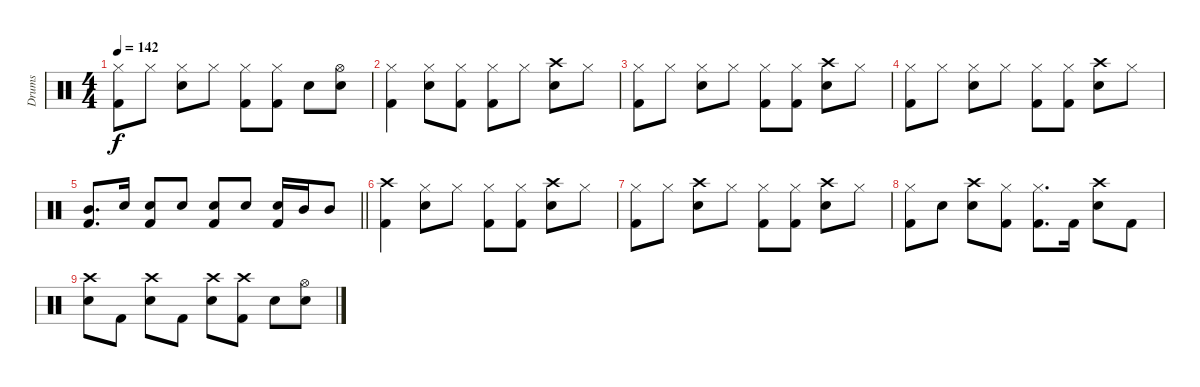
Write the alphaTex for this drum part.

\track ("Drums" "Drums") {instrument percussion}
\staff {score}
\articulation defaults
\ts (4 4)
\tempo 142
\clef neutral
\ks c
("Hi-Hat (closed)" "Kick (hit) 2").8{dy f} "Hi-Hat (closed)".8 ("Hi-Hat (closed)" "Snare (hit) 2").8 "Hi-Hat (closed)".8 ("Hi-Hat (closed)" "Kick (hit) 2").8 ("Hi-Hat (closed)" "Kick (hit) 2").8 "Snare (hit) 2".8 ("Hi-Hat (open)" "Snare (hit) 2").8 |
("Hi-Hat (closed)" "Kick (hit) 2").4 ("Hi-Hat (closed)" "Snare (hit) 2").8 ("Hi-Hat (closed)" "Kick (hit) 2").8 ("Hi-Hat (closed)" "Kick (hit) 2").8 "Hi-Hat (closed)".8 ("Crash high (hit)" "Snare (hit) 2").8 "Hi-Hat (closed)".8 |
("Hi-Hat (closed)" "Kick (hit) 2").8 "Hi-Hat (closed)".8 ("Hi-Hat (closed)" "Snare (hit) 2").8 "Hi-Hat (closed)".8 ("Hi-Hat (closed)" "Kick (hit) 2").8 ("Hi-Hat (closed)" "Kick (hit) 2").8 ("Crash high (hit)" "Snare (hit) 2").8 "Hi-Hat (closed)".8 |
("Hi-Hat (closed)" "Kick (hit) 2").8 "Hi-Hat (closed)".8 ("Hi-Hat (closed)" "Snare (hit) 2").8 "Hi-Hat (closed)".8 ("Hi-Hat (closed)" "Kick (hit) 2").8 ("Hi-Hat (closed)" "Kick (hit) 2").8 ("Crash high (hit)" "Snare (hit) 2").8 "Hi-Hat (closed)".8 |
\barLineRight lightlight
("Mid Tom (hit)" "Kick (hit) 2").8{d} "Snare (hit) 2".16 ("Snare (hit) 2" "Kick (hit) 2").8 "Snare (hit) 2".8 ("Snare (hit) 2" "Kick (hit) 2").8 "Snare (hit) 2".8 ("Snare (hit) 2" "Kick (hit) 2").16 "Mid Tom (hit)".16 "Mid Tom (hit)".8 |
("Crash high (hit)" "Kick (hit) 2").4 ("Hi-Hat (closed)" "Snare (hit) 2").8 "Hi-Hat (closed)".8 ("Hi-Hat (closed)" "Kick (hit) 2").8 ("Hi-Hat (closed)" "Kick (hit) 2").8 ("Crash high (hit)" "Snare (hit) 2").8 "Hi-Hat (closed)".8 |
("Hi-Hat (closed)" "Kick (hit) 2").8 "Hi-Hat (closed)".8 ("Crash high (hit)" "Snare (hit) 2").8 "Hi-Hat (closed)".8 ("Hi-Hat (closed)" "Kick (hit) 2").8 ("Hi-Hat (closed)" "Kick (hit) 2").8 ("Crash high (hit)" "Snare (hit) 2").8 "Hi-Hat (closed)".8 |
("Hi-Hat (closed)" "Kick (hit) 2").8 "Snare (hit) 2".8 ("Crash high (hit)" "Snare (hit) 2").8 ("Hi-Hat (closed)" "Kick (hit) 2").8 ("Hi-Hat (closed)" "Kick (hit) 2").8{d} "Kick (hit) 2".16 ("Crash high (hit)" "Snare (hit) 2").8 "Kick (hit) 2".8 |
("Crash high (hit)" "Snare (hit) 2").8 "Kick (hit) 2".8 ("Crash high (hit)" "Snare (hit) 2").8 "Kick (hit) 2".8 ("Crash high (hit)" "Snare (hit) 2").8 ("Crash high (hit)" "Kick (hit) 2").8 "Snare (hit) 2".8 ("Hi-Hat (open)" "Snare (hit) 2").8
